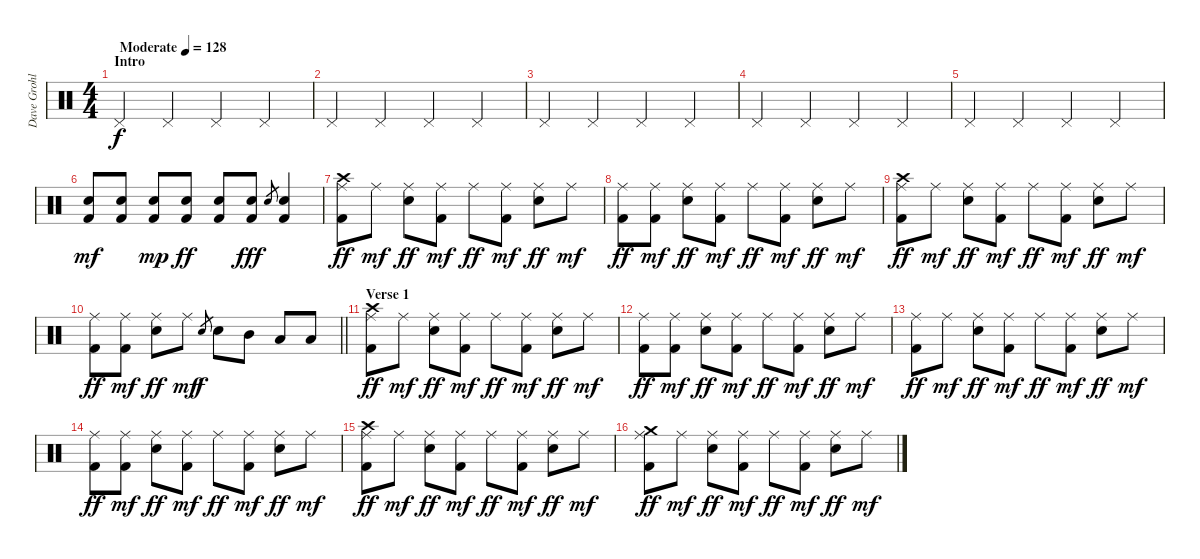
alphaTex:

\track ("Dave Grohl" "Dave Grohl") {instrument percussion}
\staff {score}
\articulation defaults
\ts (4 4)
\section ("" "Intro")
\tempo (128 "Moderate")
\clef neutral
\ks c "Pedal Hi-Hat (hit)".4{dy f} "Pedal Hi-Hat (hit)".4 "Pedal Hi-Hat (hit)".4 "Pedal Hi-Hat (hit)".4
|
"Pedal Hi-Hat (hit)".4 "Pedal Hi-Hat (hit)".4 "Pedal Hi-Hat (hit)".4 "Pedal Hi-Hat (hit)".4 |
"Pedal Hi-Hat (hit)".4 "Pedal Hi-Hat (hit)".4 "Pedal Hi-Hat (hit)".4 "Pedal Hi-Hat (hit)".4 |
"Pedal Hi-Hat (hit)".4 "Pedal Hi-Hat (hit)".4 "Pedal Hi-Hat (hit)".4 "Pedal Hi-Hat (hit)".4 |
"Pedal Hi-Hat (hit)".4 "Pedal Hi-Hat (hit)".4 "Pedal Hi-Hat (hit)".4 "Pedal Hi-Hat (hit)".4 |
("Snare (hit) 2" "Kick (hit) 2").8{dy mf} ("Snare (hit) 2" "Kick (hit) 2").8 ("Snare (hit) 2" "Kick (hit) 2").8{dy mp} ("Snare (hit) 2" "Kick (hit) 2").8{dy ff} ("Snare (hit) 2" "Kick (hit) 2").8 ("Snare (hit) 2" "Kick (hit) 2").8{dy fff} "Snare (hit) 2".8{gr} ("Snare (hit) 2" "Kick (hit) 2").4 |
("Crash high (hit)" "Ride (middle)" "Kick (hit) 2").8{dy ff} "Ride (middle)".8{dy mf} ("Ride (middle)" "Snare (hit) 2").8{dy ff} ("Ride (middle)" "Kick (hit) 2").8{dy mf} "Ride (middle)".8{dy ff} ("Ride (middle)" "Kick (hit) 2").8{dy mf} ("Ride (middle)" "Snare (hit) 2").8{dy ff} "Ride (middle)".8{dy mf} |
("Ride (middle)" "Kick (hit) 2").8{dy ff} ("Ride (middle)" "Kick (hit) 2").8{dy mf} ("Ride (middle)" "Snare (hit) 2").8{dy ff} ("Ride (middle)" "Kick (hit) 2").8{dy mf} "Ride (middle)".8{dy ff} ("Ride (middle)" "Kick (hit) 2").8{dy mf} ("Ride (middle)" "Snare (hit) 2").8{dy ff} "Ride (middle)".8{dy mf} |
("Crash high (hit)" "Ride (middle)" "Kick (hit) 2").8{dy ff} "Ride (middle)".8{dy mf} ("Ride (middle)" "Snare (hit) 2").8{dy ff} ("Ride (middle)" "Kick (hit) 2").8{dy mf} "Ride (middle)".8{dy ff} ("Ride (middle)" "Kick (hit) 2").8{dy mf} ("Ride (middle)" "Snare (hit) 2").8{dy ff} "Ride (middle)".8{dy mf} |
\barLineRight lightlight
("Ride (middle)" "Kick (hit) 2").8{dy ff} ("Ride (middle)" "Kick (hit) 2").8{dy mf} ("Ride (middle)" "Snare (hit) 2").8{dy ff} "Ride (middle)".8{dy mf} "Snare (hit) 2".8{gr dy f} "Snare (hit) 2".8 "Mid Tom (hit)".8 "Low Tom (hit)".8 "Low Floor Tom (hit)".8 |
\section ("" "Verse 1")
("Crash high (hit)" "Ride (middle)" "Kick (hit) 2").8{dy ff} "Ride (middle)".8{dy mf} ("Ride (middle)" "Snare (hit) 2").8{dy ff} ("Ride (middle)" "Kick (hit) 2").8{dy mf} "Ride (middle)".8{dy ff} ("Ride (middle)" "Kick (hit) 2").8{dy mf} ("Ride (middle)" "Snare (hit) 2").8{dy ff} "Ride (middle)".8{dy mf} |
("Ride (middle)" "Kick (hit) 2").8{dy ff} ("Ride (middle)" "Kick (hit) 2").8{dy mf} ("Ride (middle)" "Snare (hit) 2").8{dy ff} ("Ride (middle)" "Kick (hit) 2").8{dy mf} "Ride (middle)".8{dy ff} ("Ride (middle)" "Kick (hit) 2").8{dy mf} ("Ride (middle)" "Snare (hit) 2").8{dy ff} "Ride (middle)".8{dy mf} |
("Ride (middle)" "Kick (hit) 2").8{dy ff} "Ride (middle)".8{dy mf} ("Ride (middle)" "Snare (hit) 2").8{dy ff} ("Ride (middle)" "Kick (hit) 2").8{dy mf} "Ride (middle)".8{dy ff} ("Ride (middle)" "Kick (hit) 2").8{dy mf} ("Ride (middle)" "Snare (hit) 2").8{dy ff} "Ride (middle)".8{dy mf} |
("Ride (middle)" "Kick (hit) 2").8{dy ff} ("Ride (middle)" "Kick (hit) 2").8{dy mf} ("Ride (middle)" "Snare (hit) 2").8{dy ff} ("Ride (middle)" "Kick (hit) 2").8{dy mf} "Ride (middle)".8{dy ff} ("Ride (middle)" "Kick (hit) 2").8{dy mf} ("Ride (middle)" "Snare (hit) 2").8{dy ff} "Ride (middle)".8{dy mf} |
("Crash high (hit)" "Ride (middle)" "Kick (hit) 2").8{dy ff} "Ride (middle)".8{dy mf} ("Ride (middle)" "Snare (hit) 2").8{dy ff} ("Ride (middle)" "Kick (hit) 2").8{dy mf} "Ride (middle)".8{dy ff} ("Ride (middle)" "Kick (hit) 2").8{dy mf} ("Ride (middle)" "Snare (hit) 2").8{dy ff} "Ride (middle)".8{dy mf} |
("Crash medium (hit)" "Ride (middle)" "Kick (hit) 2").8{dy ff} "Ride (middle)".8{dy mf} ("Ride (middle)" "Snare (hit) 2").8{dy ff} ("Ride (middle)" "Kick (hit) 2").8{dy mf} "Ride (middle)".8{dy ff} ("Ride (middle)" "Kick (hit) 2").8{dy mf} ("Ride (middle)" "Snare (hit) 2").8{dy ff} "Ride (middle)".8{dy mf}
